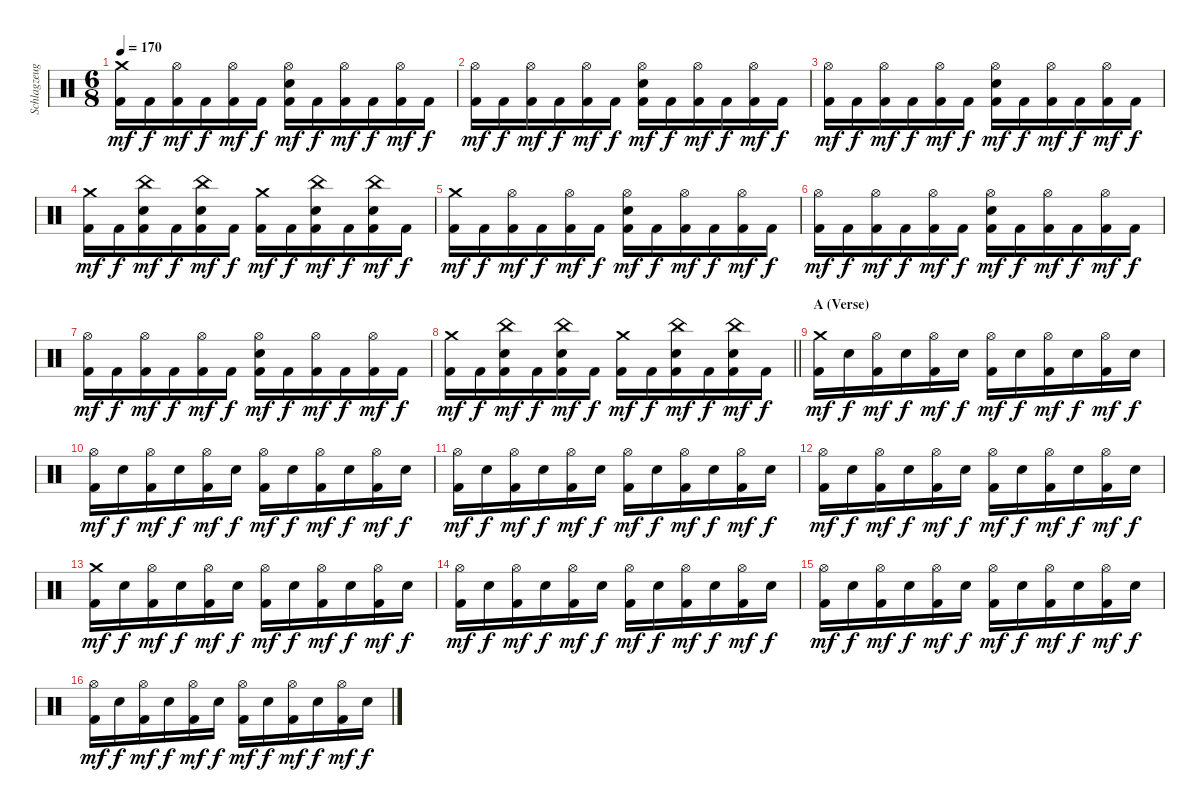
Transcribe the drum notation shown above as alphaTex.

\track ("Schlagzeug" "Schlagzeug") {instrument percussion}
\staff {score}
\articulation defaults
\ts (6 8)
\tempo 170
\clef neutral
\ks c
("Crash medium (hit)" "Kick (hit) 2").16{dy mf} "Kick (hit) 2".16{dy f} ("Hi-Hat (open)" "Kick (hit) 2").16{dy mf} "Kick (hit) 2".16{dy f} ("Hi-Hat (open)" "Kick (hit) 2").16{dy mf} "Kick (hit) 2".16{dy f} ("Hi-Hat (open)" "Electric Snare (hit)" "Kick (hit) 2").16{dy mf} "Kick (hit) 2".16{dy f} ("Hi-Hat (open)" "Kick (hit) 2").16{dy mf} "Kick (hit) 2".16{dy f} ("Hi-Hat (open)" "Kick (hit) 2").16{dy mf} "Kick (hit) 2".16{dy f} |
("Hi-Hat (open)" "Kick (hit) 2").16{dy mf} "Kick (hit) 2".16{dy f} ("Hi-Hat (open)" "Kick (hit) 2").16{dy mf} "Kick (hit) 2".16{dy f} ("Hi-Hat (open)" "Kick (hit) 2").16{dy mf} "Kick (hit) 2".16{dy f} ("Hi-Hat (open)" "Electric Snare (hit)" "Kick (hit) 2").16{dy mf} "Kick (hit) 2".16{dy f} ("Hi-Hat (open)" "Kick (hit) 2").16{dy mf} "Kick (hit) 2".16{dy f} ("Hi-Hat (open)" "Kick (hit) 2").16{dy mf} "Kick (hit) 2".16{dy f} |
("Hi-Hat (open)" "Kick (hit) 2").16{dy mf} "Kick (hit) 2".16{dy f} ("Hi-Hat (open)" "Kick (hit) 2").16{dy mf} "Kick (hit) 2".16{dy f} ("Hi-Hat (open)" "Kick (hit) 2").16{dy mf} "Kick (hit) 2".16{dy f} ("Hi-Hat (open)" "Electric Snare (hit)" "Kick (hit) 2").16{dy mf} "Kick (hit) 2".16{dy f} ("Hi-Hat (open)" "Kick (hit) 2").16{dy mf} "Kick (hit) 2".16{dy f} ("Hi-Hat (open)" "Kick (hit) 2").16{dy mf} "Kick (hit) 2".16{dy f} |
("Crash medium (hit)" "Kick (hit) 2").16{dy mf} "Kick (hit) 2".16{dy f} ("China (hit)" "Electric Snare (hit)" "Kick (hit) 2").16{dy mf} "Kick (hit) 2".16{dy f} ("China (hit)" "Electric Snare (hit)" "Kick (hit) 2").16{dy mf} "Kick (hit) 2".16{dy f} ("Crash medium (hit)" "Kick (hit) 2").16{dy mf} "Kick (hit) 2".16{dy f} ("China (hit)" "Electric Snare (hit)" "Kick (hit) 2").16{dy mf} "Kick (hit) 2".16{dy f} ("China (hit)" "Electric Snare (hit)" "Kick (hit) 2").16{dy mf} "Kick (hit) 2".16{dy f} |
("Crash medium (hit)" "Kick (hit) 2").16{dy mf} "Kick (hit) 2".16{dy f} ("Hi-Hat (open)" "Kick (hit) 2").16{dy mf} "Kick (hit) 2".16{dy f} ("Hi-Hat (open)" "Kick (hit) 2").16{dy mf} "Kick (hit) 2".16{dy f} ("Hi-Hat (open)" "Electric Snare (hit)" "Kick (hit) 2").16{dy mf} "Kick (hit) 2".16{dy f} ("Hi-Hat (open)" "Kick (hit) 2").16{dy mf} "Kick (hit) 2".16{dy f} ("Hi-Hat (open)" "Kick (hit) 2").16{dy mf} "Kick (hit) 2".16{dy f} |
("Hi-Hat (open)" "Kick (hit) 2").16{dy mf} "Kick (hit) 2".16{dy f} ("Hi-Hat (open)" "Kick (hit) 2").16{dy mf} "Kick (hit) 2".16{dy f} ("Hi-Hat (open)" "Kick (hit) 2").16{dy mf} "Kick (hit) 2".16{dy f} ("Hi-Hat (open)" "Electric Snare (hit)" "Kick (hit) 2").16{dy mf} "Kick (hit) 2".16{dy f} ("Hi-Hat (open)" "Kick (hit) 2").16{dy mf} "Kick (hit) 2".16{dy f} ("Hi-Hat (open)" "Kick (hit) 2").16{dy mf} "Kick (hit) 2".16{dy f} |
("Hi-Hat (open)" "Kick (hit) 2").16{dy mf} "Kick (hit) 2".16{dy f} ("Hi-Hat (open)" "Kick (hit) 2").16{dy mf} "Kick (hit) 2".16{dy f} ("Hi-Hat (open)" "Kick (hit) 2").16{dy mf} "Kick (hit) 2".16{dy f} ("Hi-Hat (open)" "Electric Snare (hit)" "Kick (hit) 2").16{dy mf} "Kick (hit) 2".16{dy f} ("Hi-Hat (open)" "Kick (hit) 2").16{dy mf} "Kick (hit) 2".16{dy f} ("Hi-Hat (open)" "Kick (hit) 2").16{dy mf} "Kick (hit) 2".16{dy f} |
\barLineRight lightlight
("Crash medium (hit)" "Kick (hit) 2").16{dy mf} "Kick (hit) 2".16{dy f} ("China (hit)" "Electric Snare (hit)" "Kick (hit) 2").16{dy mf} "Kick (hit) 2".16{dy f} ("China (hit)" "Electric Snare (hit)" "Kick (hit) 2").16{dy mf} "Kick (hit) 2".16{dy f} ("Crash medium (hit)" "Kick (hit) 2").16{dy mf} "Kick (hit) 2".16{dy f} ("China (hit)" "Electric Snare (hit)" "Kick (hit) 2").16{dy mf} "Kick (hit) 2".16{dy f} ("China (hit)" "Electric Snare (hit)" "Kick (hit) 2").16{dy mf} "Kick (hit) 2".16{dy f} |
\section ("" "A (Verse)")
("Crash medium (hit)" "Kick (hit) 2").16{dy mf} "Electric Snare (hit)".16{dy f} ("Hi-Hat (open)" "Kick (hit) 2").16{dy mf} "Electric Snare (hit)".16{dy f} ("Hi-Hat (open)" "Kick (hit) 2").16{dy mf} "Electric Snare (hit)".16{dy f} ("Hi-Hat (open)" "Kick (hit) 2").16{dy mf} "Electric Snare (hit)".16{dy f} ("Hi-Hat (open)" "Kick (hit) 2").16{dy mf} "Electric Snare (hit)".16{dy f} ("Hi-Hat (open)" "Kick (hit) 2").16{dy mf} "Electric Snare (hit)".16{dy f} |
("Hi-Hat (open)" "Kick (hit) 2").16{dy mf} "Electric Snare (hit)".16{dy f} ("Hi-Hat (open)" "Kick (hit) 2").16{dy mf} "Electric Snare (hit)".16{dy f} ("Hi-Hat (open)" "Kick (hit) 2").16{dy mf} "Electric Snare (hit)".16{dy f} ("Hi-Hat (open)" "Kick (hit) 2").16{dy mf} "Electric Snare (hit)".16{dy f} ("Hi-Hat (open)" "Kick (hit) 2").16{dy mf} "Electric Snare (hit)".16{dy f} ("Hi-Hat (open)" "Kick (hit) 2").16{dy mf} "Electric Snare (hit)".16{dy f} |
("Hi-Hat (open)" "Kick (hit) 2").16{dy mf} "Electric Snare (hit)".16{dy f} ("Hi-Hat (open)" "Kick (hit) 2").16{dy mf} "Electric Snare (hit)".16{dy f} ("Hi-Hat (open)" "Kick (hit) 2").16{dy mf} "Electric Snare (hit)".16{dy f} ("Hi-Hat (open)" "Kick (hit) 2").16{dy mf} "Electric Snare (hit)".16{dy f} ("Hi-Hat (open)" "Kick (hit) 2").16{dy mf} "Electric Snare (hit)".16{dy f} ("Hi-Hat (open)" "Kick (hit) 2").16{dy mf} "Electric Snare (hit)".16{dy f} |
("Hi-Hat (open)" "Kick (hit) 2").16{dy mf} "Electric Snare (hit)".16{dy f} ("Hi-Hat (open)" "Kick (hit) 2").16{dy mf} "Electric Snare (hit)".16{dy f} ("Hi-Hat (open)" "Kick (hit) 2").16{dy mf} "Electric Snare (hit)".16{dy f} ("Hi-Hat (open)" "Kick (hit) 2").16{dy mf} "Electric Snare (hit)".16{dy f} ("Hi-Hat (open)" "Kick (hit) 2").16{dy mf} "Electric Snare (hit)".16{dy f} ("Hi-Hat (open)" "Kick (hit) 2").16{dy mf} "Electric Snare (hit)".16{dy f} |
("Crash medium (hit)" "Kick (hit) 2").16{dy mf} "Electric Snare (hit)".16{dy f} ("Hi-Hat (open)" "Kick (hit) 2").16{dy mf} "Electric Snare (hit)".16{dy f} ("Hi-Hat (open)" "Kick (hit) 2").16{dy mf} "Electric Snare (hit)".16{dy f} ("Hi-Hat (open)" "Kick (hit) 2").16{dy mf} "Electric Snare (hit)".16{dy f} ("Hi-Hat (open)" "Kick (hit) 2").16{dy mf} "Electric Snare (hit)".16{dy f} ("Hi-Hat (open)" "Kick (hit) 2").16{dy mf} "Electric Snare (hit)".16{dy f} |
("Hi-Hat (open)" "Kick (hit) 2").16{dy mf} "Electric Snare (hit)".16{dy f} ("Hi-Hat (open)" "Kick (hit) 2").16{dy mf} "Electric Snare (hit)".16{dy f} ("Hi-Hat (open)" "Kick (hit) 2").16{dy mf} "Electric Snare (hit)".16{dy f} ("Hi-Hat (open)" "Kick (hit) 2").16{dy mf} "Electric Snare (hit)".16{dy f} ("Hi-Hat (open)" "Kick (hit) 2").16{dy mf} "Electric Snare (hit)".16{dy f} ("Hi-Hat (open)" "Kick (hit) 2").16{dy mf} "Electric Snare (hit)".16{dy f} |
("Hi-Hat (open)" "Kick (hit) 2").16{dy mf} "Electric Snare (hit)".16{dy f} ("Hi-Hat (open)" "Kick (hit) 2").16{dy mf} "Electric Snare (hit)".16{dy f} ("Hi-Hat (open)" "Kick (hit) 2").16{dy mf} "Electric Snare (hit)".16{dy f} ("Hi-Hat (open)" "Kick (hit) 2").16{dy mf} "Electric Snare (hit)".16{dy f} ("Hi-Hat (open)" "Kick (hit) 2").16{dy mf} "Electric Snare (hit)".16{dy f} ("Hi-Hat (open)" "Kick (hit) 2").16{dy mf} "Electric Snare (hit)".16{dy f} |
("Hi-Hat (open)" "Kick (hit) 2").16{dy mf} "Electric Snare (hit)".16{dy f} ("Hi-Hat (open)" "Kick (hit) 2").16{dy mf} "Electric Snare (hit)".16{dy f} ("Hi-Hat (open)" "Kick (hit) 2").16{dy mf} "Electric Snare (hit)".16{dy f} ("Hi-Hat (open)" "Kick (hit) 2").16{dy mf} "Electric Snare (hit)".16{dy f} ("Hi-Hat (open)" "Kick (hit) 2").16{dy mf} "Electric Snare (hit)".16{dy f} ("Hi-Hat (open)" "Kick (hit) 2").16{dy mf} "Electric Snare (hit)".16{dy f}
